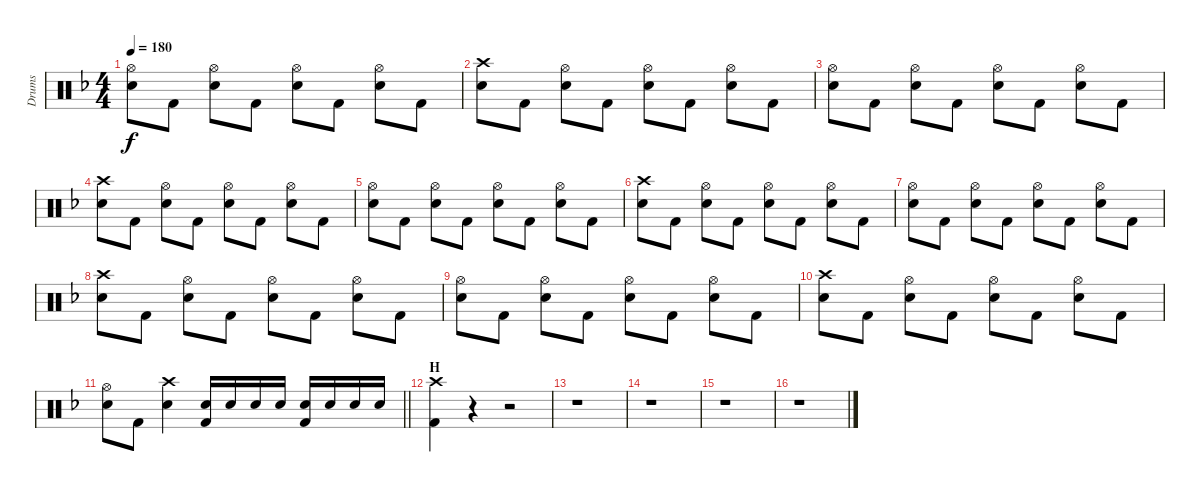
\track ("Drums" "Drums") {instrument percussion}
\staff {score}
\articulation defaults
\ts (4 4)
\tempo 180
\clef neutral
\ks dminor
("Hi-Hat (open)" "Snare (hit) 2").8{dy f} "Kick (hit) 2".8 ("Hi-Hat (open)" "Snare (hit) 2").8 "Kick (hit) 2".8 ("Hi-Hat (open)" "Snare (hit) 2").8 "Kick (hit) 2".8 ("Hi-Hat (open)" "Snare (hit) 2").8 "Kick (hit) 2".8 |
("Crash high (hit)" "Snare (hit) 2").8 "Kick (hit) 2".8 ("Hi-Hat (open)" "Snare (hit) 2").8 "Kick (hit) 2".8 ("Hi-Hat (open)" "Snare (hit) 2").8 "Kick (hit) 2".8 ("Hi-Hat (open)" "Snare (hit) 2").8 "Kick (hit) 2".8 |
("Hi-Hat (open)" "Snare (hit) 2").8 "Kick (hit) 2".8 ("Hi-Hat (open)" "Snare (hit) 2").8 "Kick (hit) 2".8 ("Hi-Hat (open)" "Snare (hit) 2").8 "Kick (hit) 2".8 ("Hi-Hat (open)" "Snare (hit) 2").8 "Kick (hit) 2".8 |
("Crash high (hit)" "Snare (hit) 2").8 "Kick (hit) 2".8 ("Hi-Hat (open)" "Snare (hit) 2").8 "Kick (hit) 2".8 ("Hi-Hat (open)" "Snare (hit) 2").8 "Kick (hit) 2".8 ("Hi-Hat (open)" "Snare (hit) 2").8 "Kick (hit) 2".8 |
("Hi-Hat (open)" "Snare (hit) 2").8 "Kick (hit) 2".8 ("Hi-Hat (open)" "Snare (hit) 2").8 "Kick (hit) 2".8 ("Hi-Hat (open)" "Snare (hit) 2").8 "Kick (hit) 2".8 ("Hi-Hat (open)" "Snare (hit) 2").8 "Kick (hit) 2".8 |
("Crash high (hit)" "Snare (hit) 2").8 "Kick (hit) 2".8 ("Hi-Hat (open)" "Snare (hit) 2").8 "Kick (hit) 2".8 ("Hi-Hat (open)" "Snare (hit) 2").8 "Kick (hit) 2".8 ("Hi-Hat (open)" "Snare (hit) 2").8 "Kick (hit) 2".8 |
("Hi-Hat (open)" "Snare (hit) 2").8 "Kick (hit) 2".8 ("Hi-Hat (open)" "Snare (hit) 2").8 "Kick (hit) 2".8 ("Hi-Hat (open)" "Snare (hit) 2").8 "Kick (hit) 2".8 ("Hi-Hat (open)" "Snare (hit) 2").8 "Kick (hit) 2".8 |
("Crash high (hit)" "Snare (hit) 2").8 "Kick (hit) 2".8 ("Hi-Hat (open)" "Snare (hit) 2").8 "Kick (hit) 2".8 ("Hi-Hat (open)" "Snare (hit) 2").8 "Kick (hit) 2".8 ("Hi-Hat (open)" "Snare (hit) 2").8 "Kick (hit) 2".8 |
("Hi-Hat (open)" "Snare (hit) 2").8 "Kick (hit) 2".8 ("Hi-Hat (open)" "Snare (hit) 2").8 "Kick (hit) 2".8 ("Hi-Hat (open)" "Snare (hit) 2").8 "Kick (hit) 2".8 ("Hi-Hat (open)" "Snare (hit) 2").8 "Kick (hit) 2".8 |
("Crash high (hit)" "Snare (hit) 2").8 "Kick (hit) 2".8 ("Hi-Hat (open)" "Snare (hit) 2").8 "Kick (hit) 2".8 ("Hi-Hat (open)" "Snare (hit) 2").8 "Kick (hit) 2".8 ("Hi-Hat (open)" "Snare (hit) 2").8 "Kick (hit) 2".8 |
\barLineRight lightlight
("Hi-Hat (open)" "Snare (hit) 2").8 "Kick (hit) 2".8 ("Crash high (hit)" "Snare (hit) 2").4 ("Snare (hit) 2" "Kick (hit) 2").16 "Snare (hit) 2".16 "Snare (hit) 2".16 "Snare (hit) 2".16 ("Snare (hit) 2" "Kick (hit) 2").16 "Snare (hit) 2".16 "Snare (hit) 2".16 "Snare (hit) 2".16 |
\section ("" "H")
("Crash high (hit)" "Kick (hit) 2").4 r.4 r.2 |
r.1 |
r.1 |
r.1 |
r.1
